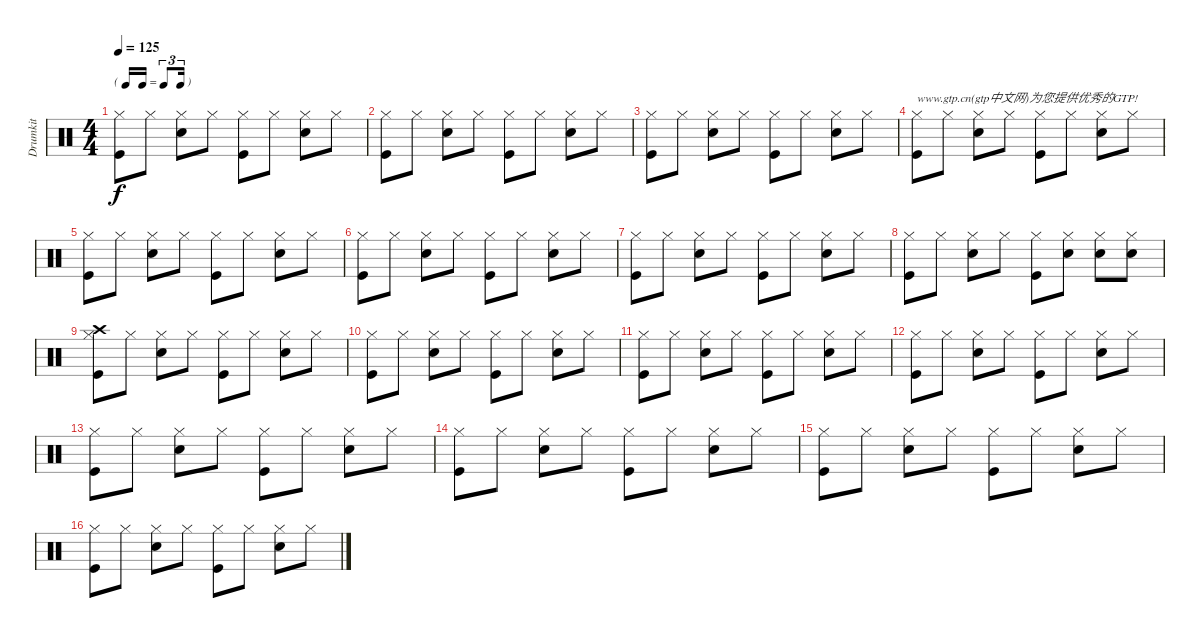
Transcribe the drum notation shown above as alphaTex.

\track ("Drumkit" "Drumkit") {instrument percussion}
\staff {score}
\articulation defaults
\ts (4 4)
\tf triplet16th
\tempo 125
\clef neutral
\ks c
("Kick (hit)" "Hi-Hat (closed)").8{dy f} "Hi-Hat (closed)".8 ("Snare (hit) 2" "Hi-Hat (closed)").8 "Hi-Hat (closed)".8 ("Kick (hit)" "Hi-Hat (closed)").8 "Hi-Hat (closed)".8 ("Snare (hit) 2" "Hi-Hat (closed)").8 "Hi-Hat (closed)".8 |
("Kick (hit)" "Hi-Hat (closed)").8 "Hi-Hat (closed)".8 ("Snare (hit) 2" "Hi-Hat (closed)").8 "Hi-Hat (closed)".8 ("Kick (hit)" "Hi-Hat (closed)").8 "Hi-Hat (closed)".8 ("Snare (hit) 2" "Hi-Hat (closed)").8 "Hi-Hat (closed)".8 |
("Kick (hit)" "Hi-Hat (closed)").8 "Hi-Hat (closed)".8 ("Snare (hit) 2" "Hi-Hat (closed)").8 "Hi-Hat (closed)".8 ("Kick (hit)" "Hi-Hat (closed)").8 "Hi-Hat (closed)".8 ("Snare (hit) 2" "Hi-Hat (closed)").8 "Hi-Hat (closed)".8 |
("Kick (hit)" "Hi-Hat (closed)").8{txt "www.gtp.cn(gtp中文网)为您提供优秀的GTP!"} "Hi-Hat (closed)".8 ("Snare (hit) 2" "Hi-Hat (closed)").8 "Hi-Hat (closed)".8 ("Kick (hit)" "Hi-Hat (closed)").8 "Hi-Hat (closed)".8 ("Snare (hit) 2" "Hi-Hat (closed)").8 "Hi-Hat (closed)".8 |
("Kick (hit)" "Hi-Hat (closed)").8 "Hi-Hat (closed)".8 ("Snare (hit) 2" "Hi-Hat (closed)").8 "Hi-Hat (closed)".8 ("Kick (hit)" "Hi-Hat (closed)").8 "Hi-Hat (closed)".8 ("Snare (hit) 2" "Hi-Hat (closed)").8 "Hi-Hat (closed)".8 |
("Kick (hit)" "Hi-Hat (closed)").8 "Hi-Hat (closed)".8 ("Snare (hit) 2" "Hi-Hat (closed)").8 "Hi-Hat (closed)".8 ("Kick (hit)" "Hi-Hat (closed)").8 "Hi-Hat (closed)".8 ("Snare (hit) 2" "Hi-Hat (closed)").8 "Hi-Hat (closed)".8 |
("Kick (hit)" "Hi-Hat (closed)").8 "Hi-Hat (closed)".8 ("Snare (hit) 2" "Hi-Hat (closed)").8 "Hi-Hat (closed)".8 ("Kick (hit)" "Hi-Hat (closed)").8 "Hi-Hat (closed)".8 ("Snare (hit) 2" "Hi-Hat (closed)").8 "Hi-Hat (closed)".8 |
("Kick (hit)" "Hi-Hat (closed)").8 "Hi-Hat (closed)".8 ("Snare (hit) 2" "Hi-Hat (closed)").8 "Hi-Hat (closed)".8 ("Kick (hit)" "Hi-Hat (closed)").8 ("Snare (hit) 2" "Hi-Hat (closed)").8 ("Snare (hit) 2" "Hi-Hat (closed)").8 ("Snare (hit) 2" "Hi-Hat (closed)").8 |
("Kick (hit)" "Hi-Hat (closed)" "Crash high (hit)").8 "Hi-Hat (closed)".8 ("Snare (hit) 2" "Hi-Hat (closed)").8 "Hi-Hat (closed)".8 ("Kick (hit)" "Hi-Hat (closed)").8 "Hi-Hat (closed)".8 ("Snare (hit) 2" "Hi-Hat (closed)").8 "Hi-Hat (closed)".8 |
("Kick (hit)" "Hi-Hat (closed)").8 "Hi-Hat (closed)".8 ("Snare (hit) 2" "Hi-Hat (closed)").8 "Hi-Hat (closed)".8 ("Kick (hit)" "Hi-Hat (closed)").8 "Hi-Hat (closed)".8 ("Snare (hit) 2" "Hi-Hat (closed)").8 "Hi-Hat (closed)".8 |
("Kick (hit)" "Hi-Hat (closed)").8 "Hi-Hat (closed)".8 ("Snare (hit) 2" "Hi-Hat (closed)").8 "Hi-Hat (closed)".8 ("Kick (hit)" "Hi-Hat (closed)").8 "Hi-Hat (closed)".8 ("Snare (hit) 2" "Hi-Hat (closed)").8 "Hi-Hat (closed)".8 |
("Kick (hit)" "Hi-Hat (closed)").8 "Hi-Hat (closed)".8 ("Snare (hit) 2" "Hi-Hat (closed)").8 "Hi-Hat (closed)".8 ("Kick (hit)" "Hi-Hat (closed)").8 "Hi-Hat (closed)".8 ("Snare (hit) 2" "Hi-Hat (closed)").8 "Hi-Hat (closed)".8 |
("Kick (hit)" "Hi-Hat (closed)").8 "Hi-Hat (closed)".8 ("Snare (hit) 2" "Hi-Hat (closed)").8 "Hi-Hat (closed)".8 ("Kick (hit)" "Hi-Hat (closed)").8 "Hi-Hat (closed)".8 ("Snare (hit) 2" "Hi-Hat (closed)").8 "Hi-Hat (closed)".8 |
("Kick (hit)" "Hi-Hat (closed)").8 "Hi-Hat (closed)".8 ("Snare (hit) 2" "Hi-Hat (closed)").8 "Hi-Hat (closed)".8 ("Kick (hit)" "Hi-Hat (closed)").8 "Hi-Hat (closed)".8 ("Snare (hit) 2" "Hi-Hat (closed)").8 "Hi-Hat (closed)".8 |
("Kick (hit)" "Hi-Hat (closed)").8 "Hi-Hat (closed)".8 ("Snare (hit) 2" "Hi-Hat (closed)").8 "Hi-Hat (closed)".8 ("Kick (hit)" "Hi-Hat (closed)").8 "Hi-Hat (closed)".8 ("Snare (hit) 2" "Hi-Hat (closed)").8 "Hi-Hat (closed)".8 |
("Kick (hit)" "Hi-Hat (closed)").8 "Hi-Hat (closed)".8 ("Snare (hit) 2" "Hi-Hat (closed)").8 "Hi-Hat (closed)".8 ("Kick (hit)" "Hi-Hat (closed)").8 "Hi-Hat (closed)".8 ("Snare (hit) 2" "Hi-Hat (closed)").8 "Hi-Hat (closed)".8
